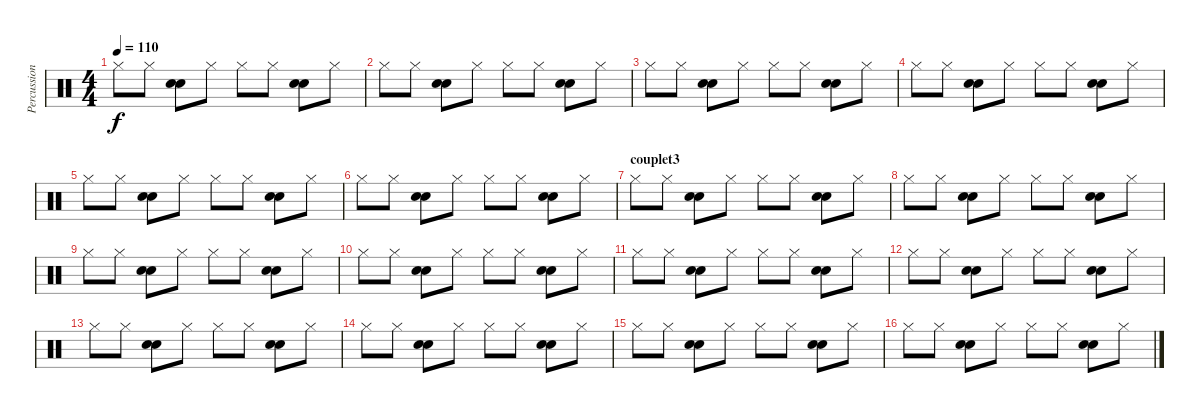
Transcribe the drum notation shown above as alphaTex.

\track ("Percussions" "Percussion") {instrument percussion}
\staff {score}
\articulation defaults
\ts (4 4)
\tempo 110
\clef neutral
\ks c "Hi-Hat (closed)".8{dy f} "Hi-Hat (closed)".8
("Snare (hit) 2" "Electric Snare (hit)").8 "Hi-Hat (closed)".8 "Hi-Hat (closed)".8 "Hi-Hat (closed)".8 ("Snare (hit) 2" "Electric Snare (hit)").8 "Hi-Hat (closed)".8 |
"Hi-Hat (closed)".8 "Hi-Hat (closed)".8 ("Snare (hit) 2" "Electric Snare (hit)").8 "Hi-Hat (closed)".8 "Hi-Hat (closed)".8 "Hi-Hat (closed)".8 ("Snare (hit) 2" "Electric Snare (hit)").8 "Hi-Hat (closed)".8 |
"Hi-Hat (closed)".8 "Hi-Hat (closed)".8 ("Snare (hit) 2" "Electric Snare (hit)").8 "Hi-Hat (closed)".8 "Hi-Hat (closed)".8 "Hi-Hat (closed)".8 ("Snare (hit) 2" "Electric Snare (hit)").8 "Hi-Hat (closed)".8 |
"Hi-Hat (closed)".8 "Hi-Hat (closed)".8 ("Snare (hit) 2" "Electric Snare (hit)").8 "Hi-Hat (closed)".8 "Hi-Hat (closed)".8 "Hi-Hat (closed)".8 ("Snare (hit) 2" "Electric Snare (hit)").8 "Hi-Hat (closed)".8 |
"Hi-Hat (closed)".8 "Hi-Hat (closed)".8 ("Snare (hit) 2" "Electric Snare (hit)").8 "Hi-Hat (closed)".8 "Hi-Hat (closed)".8 "Hi-Hat (closed)".8 ("Snare (hit) 2" "Electric Snare (hit)").8 "Hi-Hat (closed)".8 |
"Hi-Hat (closed)".8 "Hi-Hat (closed)".8 ("Snare (hit) 2" "Electric Snare (hit)").8 "Hi-Hat (closed)".8 "Hi-Hat (closed)".8 "Hi-Hat (closed)".8 ("Snare (hit) 2" "Electric Snare (hit)").8 "Hi-Hat (closed)".8 |
\section ("" "couplet3")
"Hi-Hat (closed)".8 "Hi-Hat (closed)".8 ("Snare (hit) 2" "Electric Snare (hit)").8 "Hi-Hat (closed)".8 "Hi-Hat (closed)".8 "Hi-Hat (closed)".8 ("Snare (hit) 2" "Electric Snare (hit)").8 "Hi-Hat (closed)".8 |
"Hi-Hat (closed)".8 "Hi-Hat (closed)".8 ("Snare (hit) 2" "Electric Snare (hit)").8 "Hi-Hat (closed)".8 "Hi-Hat (closed)".8 "Hi-Hat (closed)".8 ("Snare (hit) 2" "Electric Snare (hit)").8 "Hi-Hat (closed)".8 |
"Hi-Hat (closed)".8 "Hi-Hat (closed)".8 ("Snare (hit) 2" "Electric Snare (hit)").8 "Hi-Hat (closed)".8 "Hi-Hat (closed)".8 "Hi-Hat (closed)".8 ("Snare (hit) 2" "Electric Snare (hit)").8 "Hi-Hat (closed)".8 |
"Hi-Hat (closed)".8 "Hi-Hat (closed)".8 ("Snare (hit) 2" "Electric Snare (hit)").8 "Hi-Hat (closed)".8 "Hi-Hat (closed)".8 "Hi-Hat (closed)".8 ("Snare (hit) 2" "Electric Snare (hit)").8 "Hi-Hat (closed)".8 |
"Hi-Hat (closed)".8 "Hi-Hat (closed)".8 ("Snare (hit) 2" "Electric Snare (hit)").8 "Hi-Hat (closed)".8 "Hi-Hat (closed)".8 "Hi-Hat (closed)".8 ("Snare (hit) 2" "Electric Snare (hit)").8 "Hi-Hat (closed)".8 |
"Hi-Hat (closed)".8 "Hi-Hat (closed)".8 ("Snare (hit) 2" "Electric Snare (hit)").8 "Hi-Hat (closed)".8 "Hi-Hat (closed)".8 "Hi-Hat (closed)".8 ("Snare (hit) 2" "Electric Snare (hit)").8 "Hi-Hat (closed)".8 |
"Hi-Hat (closed)".8 "Hi-Hat (closed)".8 ("Snare (hit) 2" "Electric Snare (hit)").8 "Hi-Hat (closed)".8 "Hi-Hat (closed)".8 "Hi-Hat (closed)".8 ("Snare (hit) 2" "Electric Snare (hit)").8 "Hi-Hat (closed)".8 |
"Hi-Hat (closed)".8 "Hi-Hat (closed)".8 ("Snare (hit) 2" "Electric Snare (hit)").8 "Hi-Hat (closed)".8 "Hi-Hat (closed)".8 "Hi-Hat (closed)".8 ("Snare (hit) 2" "Electric Snare (hit)").8 "Hi-Hat (closed)".8 |
"Hi-Hat (closed)".8 "Hi-Hat (closed)".8 ("Snare (hit) 2" "Electric Snare (hit)").8 "Hi-Hat (closed)".8 "Hi-Hat (closed)".8 "Hi-Hat (closed)".8 ("Snare (hit) 2" "Electric Snare (hit)").8 "Hi-Hat (closed)".8 |
"Hi-Hat (closed)".8 "Hi-Hat (closed)".8 ("Snare (hit) 2" "Electric Snare (hit)").8 "Hi-Hat (closed)".8 "Hi-Hat (closed)".8 "Hi-Hat (closed)".8 ("Snare (hit) 2" "Electric Snare (hit)").8 "Hi-Hat (closed)".8
